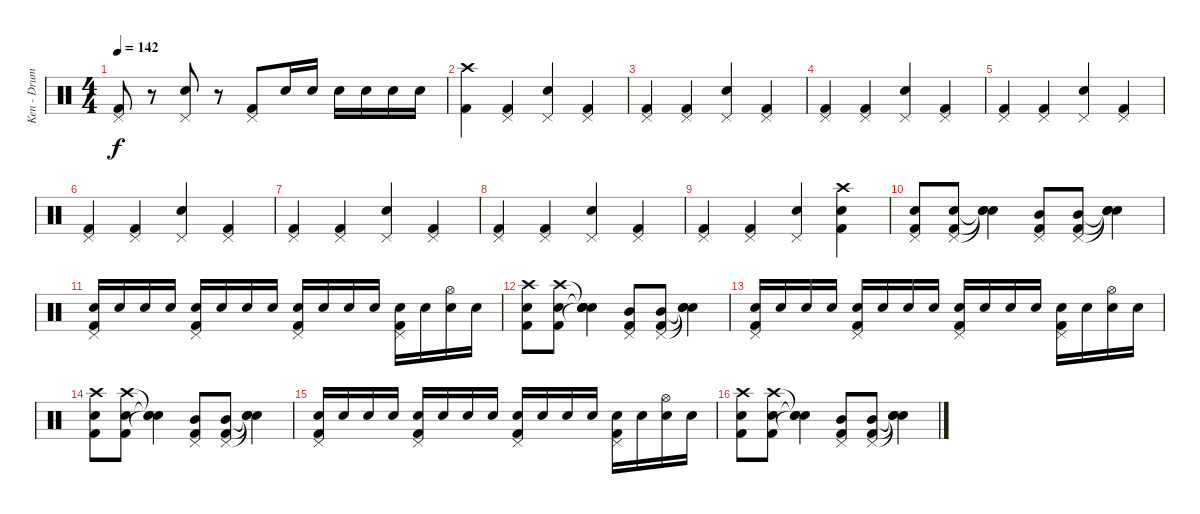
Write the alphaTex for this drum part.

\track ("Ken - Drums" "Ken - Drum") {instrument percussion}
\staff {score}
\articulation defaults
\ts (4 4)
\tempo 142
\clef neutral
\ks c
("Pedal Hi-Hat (hit)" "Kick (hit) 2").8{dy f} r.8 ("Pedal Hi-Hat (hit)" "Electric Snare (hit)").8 r.8 ("Pedal Hi-Hat (hit)" "Kick (hit) 2").8 "Electric Snare (hit)".16 "Electric Snare (hit)".16 "Electric Snare (hit)".16 "Electric Snare (hit)".16 "Electric Snare (hit)".16 "Electric Snare (hit)".16 |
("Crash high (hit)" "Kick (hit) 2").4 ("Pedal Hi-Hat (hit)" "Kick (hit) 2").4 ("Pedal Hi-Hat (hit)" "Electric Snare (hit)").4 ("Pedal Hi-Hat (hit)" "Kick (hit) 2").4 |
("Pedal Hi-Hat (hit)" "Kick (hit) 2").4 ("Pedal Hi-Hat (hit)" "Kick (hit) 2").4 ("Pedal Hi-Hat (hit)" "Electric Snare (hit)").4 ("Pedal Hi-Hat (hit)" "Kick (hit) 2").4 |
("Pedal Hi-Hat (hit)" "Kick (hit) 2").4 ("Pedal Hi-Hat (hit)" "Kick (hit) 2").4 ("Pedal Hi-Hat (hit)" "Electric Snare (hit)").4 ("Pedal Hi-Hat (hit)" "Kick (hit) 2").4 |
("Pedal Hi-Hat (hit)" "Kick (hit) 2").4 ("Pedal Hi-Hat (hit)" "Kick (hit) 2").4 ("Pedal Hi-Hat (hit)" "Electric Snare (hit)").4 ("Pedal Hi-Hat (hit)" "Kick (hit) 2").4 |
("Pedal Hi-Hat (hit)" "Kick (hit) 2").4 ("Pedal Hi-Hat (hit)" "Kick (hit) 2").4 ("Pedal Hi-Hat (hit)" "Electric Snare (hit)").4 ("Pedal Hi-Hat (hit)" "Kick (hit) 2").4 |
("Pedal Hi-Hat (hit)" "Kick (hit) 2").4 ("Pedal Hi-Hat (hit)" "Kick (hit) 2").4 ("Pedal Hi-Hat (hit)" "Electric Snare (hit)").4 ("Pedal Hi-Hat (hit)" "Kick (hit) 2").4 |
("Pedal Hi-Hat (hit)" "Kick (hit) 2").4 ("Pedal Hi-Hat (hit)" "Kick (hit) 2").4 ("Pedal Hi-Hat (hit)" "Electric Snare (hit)").4 ("Pedal Hi-Hat (hit)" "Kick (hit) 2").4 |
("Pedal Hi-Hat (hit)" "Kick (hit) 2").4 ("Pedal Hi-Hat (hit)" "Kick (hit) 2").4 ("Pedal Hi-Hat (hit)" "Electric Snare (hit)").4 ("Crash high (hit)" "Electric Snare (hit)" "Kick (hit) 2").4 |
("Pedal Hi-Hat (hit)" "Electric Snare (hit)" "Kick (hit) 2").8 ("Pedal Hi-Hat (hit)" "Electric Snare (hit)" "Kick (hit) 2").8 ("Snare (hit)"{t} "Snare (hit)"{t} "Snare (hit)"{t}).4 ("Pedal Hi-Hat (hit)" "Mid Tom (hit)" "Kick (hit) 2").8 ("Pedal Hi-Hat (hit)" "Mid Tom (hit)" "Kick (hit) 2").8 ("Snare (hit)"{t} "Snare (hit)"{t} "Snare (hit)"{t}).4 |
("Pedal Hi-Hat (hit)" "Electric Snare (hit)" "Kick (hit) 2").16 "Electric Snare (hit)".16 "Electric Snare (hit)".16 "Electric Snare (hit)".16 ("Pedal Hi-Hat (hit)" "Electric Snare (hit)" "Kick (hit) 2").16 "Electric Snare (hit)".16 "Electric Snare (hit)".16 "Electric Snare (hit)".16 ("Pedal Hi-Hat (hit)" "Electric Snare (hit)" "Kick (hit) 2").16 "Electric Snare (hit)".16 "Electric Snare (hit)".16 "Electric Snare (hit)".16 ("Pedal Hi-Hat (hit)" "Electric Snare (hit)" "Kick (hit) 2").16 "Electric Snare (hit)".16 ("Hi-Hat (open)" "Electric Snare (hit)").16 "Electric Snare (hit)".16 |
("Crash high (hit)" "Electric Snare (hit)" "Kick (hit) 2").8 ("Crash high (hit)" "Electric Snare (hit)" "Kick (hit) 2").8 ("Snare (hit)"{t} "Snare (hit)"{t} "Snare (hit)"{t} "Snare (hit)").4 ("Pedal Hi-Hat (hit)" "Mid Tom (hit)" "Kick (hit) 2").8 ("Pedal Hi-Hat (hit)" "Mid Tom (hit)" "Kick (hit) 2").8 ("Snare (hit)"{t} "Snare (hit)"{t} "Snare (hit)"{t}).4 |
("Pedal Hi-Hat (hit)" "Electric Snare (hit)" "Kick (hit) 2").16 "Electric Snare (hit)".16 "Electric Snare (hit)".16 "Electric Snare (hit)".16 ("Pedal Hi-Hat (hit)" "Electric Snare (hit)" "Kick (hit) 2").16 "Electric Snare (hit)".16 "Electric Snare (hit)".16 "Electric Snare (hit)".16 ("Pedal Hi-Hat (hit)" "Electric Snare (hit)" "Kick (hit) 2").16 "Electric Snare (hit)".16 "Electric Snare (hit)".16 "Electric Snare (hit)".16 ("Pedal Hi-Hat (hit)" "Electric Snare (hit)" "Kick (hit) 2").16 "Electric Snare (hit)".16 ("Hi-Hat (open)" "Electric Snare (hit)").16 "Electric Snare (hit)".16 |
("Crash high (hit)" "Electric Snare (hit)" "Kick (hit) 2").8 ("Crash high (hit)" "Electric Snare (hit)" "Kick (hit) 2").8 ("Snare (hit)"{t} "Snare (hit)"{t} "Snare (hit)"{t}).4 ("Pedal Hi-Hat (hit)" "Mid Tom (hit)" "Kick (hit) 2").8 ("Pedal Hi-Hat (hit)" "Mid Tom (hit)" "Kick (hit) 2").8 ("Snare (hit)"{t} "Snare (hit)"{t} "Snare (hit)"{t}).4 |
("Pedal Hi-Hat (hit)" "Electric Snare (hit)" "Kick (hit) 2").16 "Electric Snare (hit)".16 "Electric Snare (hit)".16 "Electric Snare (hit)".16 ("Pedal Hi-Hat (hit)" "Electric Snare (hit)" "Kick (hit) 2").16 "Electric Snare (hit)".16 "Electric Snare (hit)".16 "Electric Snare (hit)".16 ("Pedal Hi-Hat (hit)" "Electric Snare (hit)" "Kick (hit) 2").16 "Electric Snare (hit)".16 "Electric Snare (hit)".16 "Electric Snare (hit)".16 ("Pedal Hi-Hat (hit)" "Electric Snare (hit)" "Kick (hit) 2").16 "Electric Snare (hit)".16 ("Hi-Hat (open)" "Electric Snare (hit)").16 "Electric Snare (hit)".16 |
("Crash high (hit)" "Electric Snare (hit)" "Kick (hit) 2").8 ("Crash high (hit)" "Electric Snare (hit)" "Kick (hit) 2").8 ("Snare (hit)"{t} "Snare (hit)"{t} "Snare (hit)"{t}).4 ("Pedal Hi-Hat (hit)" "Mid Tom (hit)" "Kick (hit) 2").8 ("Pedal Hi-Hat (hit)" "Mid Tom (hit)" "Kick (hit) 2").8 ("Snare (hit)"{t} "Snare (hit)"{t} "Snare (hit)"{t}).4
